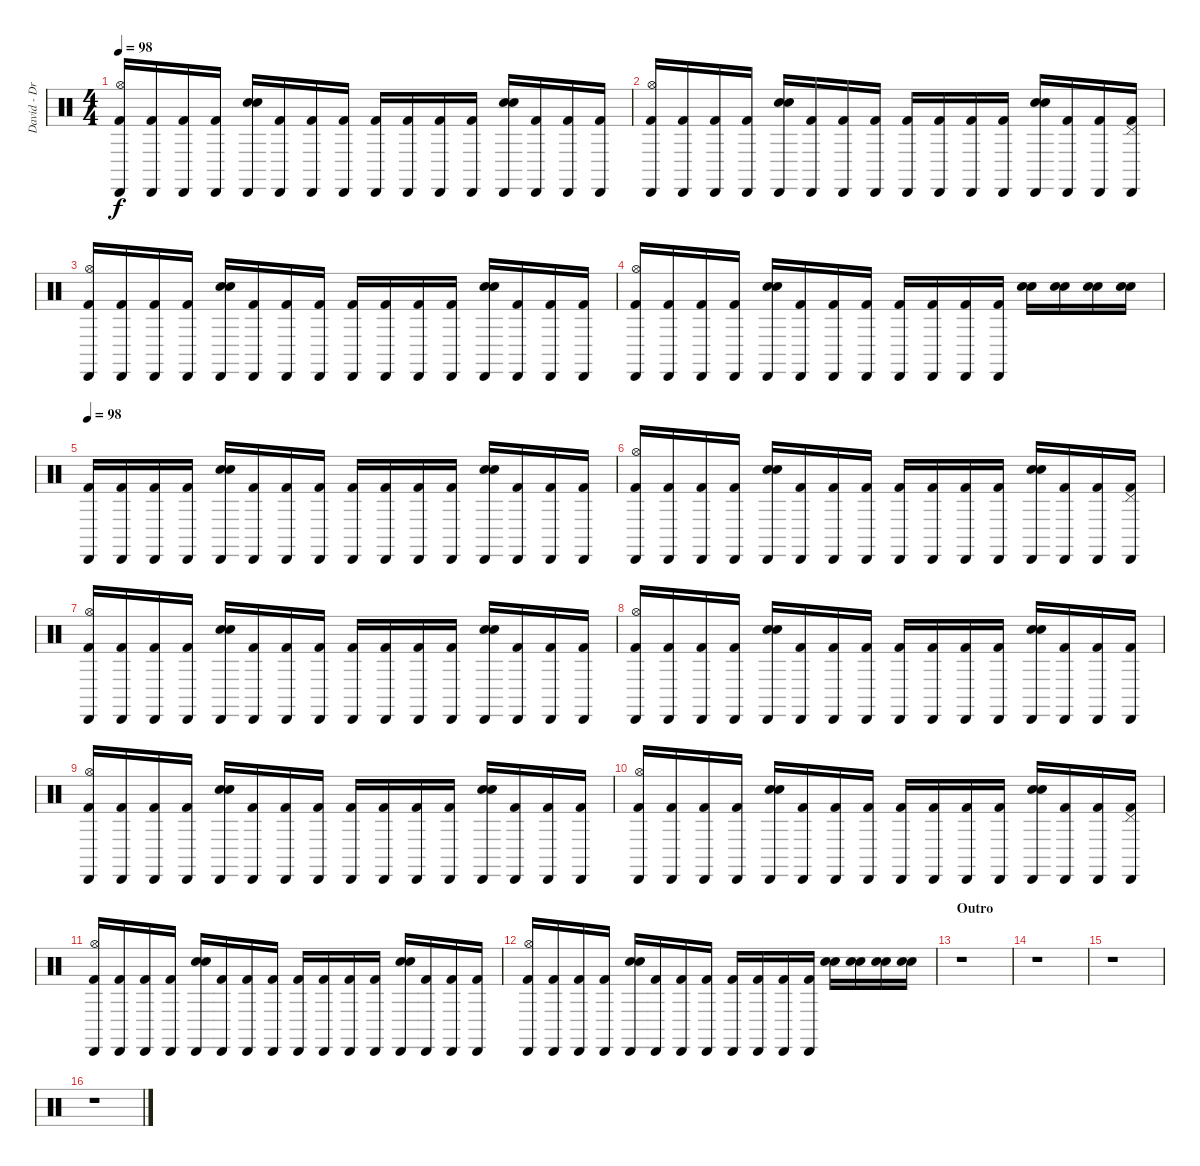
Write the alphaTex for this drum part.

\track ("David - Drums" "David - Dr") {instrument percussion}
\staff {score}
\articulation defaults
\ts (4 4)
\tempo 98
\clef neutral
\ks c
("Cabasa (hit)" "Hi-Hat (open)" "Kick (hit) 2").16{dy f} ("Cabasa (hit)" "Kick (hit) 2").16 ("Cabasa (hit)" "Kick (hit) 2").16 ("Cabasa (hit)" "Kick (hit) 2").16 ("Cabasa (hit)" "Electric Snare (hit)" "Snare (hit) 2").16 ("Cabasa (hit)" "Kick (hit) 2").16 ("Cabasa (hit)" "Kick (hit) 2").16 ("Cabasa (hit)" "Kick (hit) 2").16 ("Cabasa (hit)" "Kick (hit) 2").16 ("Cabasa (hit)" "Kick (hit) 2").16 ("Cabasa (hit)" "Kick (hit) 2").16 ("Cabasa (hit)" "Kick (hit) 2").16 ("Cabasa (hit)" "Electric Snare (hit)" "Snare (hit) 2").16 ("Cabasa (hit)" "Kick (hit) 2").16 ("Cabasa (hit)" "Kick (hit) 2").16 ("Cabasa (hit)" "Kick (hit) 2").16 |
("Cabasa (hit)" "Hi-Hat (open)" "Kick (hit) 2").16 ("Cabasa (hit)" "Kick (hit) 2").16 ("Cabasa (hit)" "Kick (hit) 2").16 ("Cabasa (hit)" "Kick (hit) 2").16 ("Cabasa (hit)" "Electric Snare (hit)" "Snare (hit) 2").16 ("Cabasa (hit)" "Kick (hit) 2").16 ("Cabasa (hit)" "Kick (hit) 2").16 ("Cabasa (hit)" "Kick (hit) 2").16 ("Cabasa (hit)" "Kick (hit) 2").16 ("Cabasa (hit)" "Kick (hit) 2").16 ("Cabasa (hit)" "Kick (hit) 2").16 ("Cabasa (hit)" "Kick (hit) 2").16 ("Cabasa (hit)" "Electric Snare (hit)" "Snare (hit) 2").16 ("Cabasa (hit)" "Kick (hit) 2").16 ("Cabasa (hit)" "Kick (hit) 2").16 ("Cabasa (hit)" "Pedal Hi-Hat (hit)" "Kick (hit) 2").16 |
("Cabasa (hit)" "Hi-Hat (open)" "Kick (hit) 2").16 ("Cabasa (hit)" "Kick (hit) 2").16 ("Cabasa (hit)" "Kick (hit) 2").16 ("Cabasa (hit)" "Kick (hit) 2").16 ("Cabasa (hit)" "Electric Snare (hit)" "Snare (hit) 2").16 ("Cabasa (hit)" "Kick (hit) 2").16 ("Cabasa (hit)" "Kick (hit) 2").16 ("Cabasa (hit)" "Kick (hit) 2").16 ("Cabasa (hit)" "Kick (hit) 2").16 ("Cabasa (hit)" "Kick (hit) 2").16 ("Cabasa (hit)" "Kick (hit) 2").16 ("Cabasa (hit)" "Kick (hit) 2").16 ("Cabasa (hit)" "Electric Snare (hit)" "Snare (hit) 2").16 ("Cabasa (hit)" "Kick (hit) 2").16 ("Cabasa (hit)" "Kick (hit) 2").16 ("Cabasa (hit)" "Kick (hit) 2").16 |
("Cabasa (hit)" "Hi-Hat (open)" "Kick (hit) 2").16 ("Cabasa (hit)" "Kick (hit) 2").16 ("Cabasa (hit)" "Kick (hit) 2").16 ("Cabasa (hit)" "Kick (hit) 2").16 ("Cabasa (hit)" "Electric Snare (hit)" "Snare (hit) 2").16 ("Cabasa (hit)" "Kick (hit) 2").16 ("Cabasa (hit)" "Kick (hit) 2").16 ("Cabasa (hit)" "Kick (hit) 2").16 ("Cabasa (hit)" "Kick (hit) 2").16 ("Cabasa (hit)" "Kick (hit) 2").16 ("Cabasa (hit)" "Kick (hit) 2").16 ("Cabasa (hit)" "Kick (hit) 2").16 ("Electric Snare (hit)" "Snare (hit) 2").16 ("Electric Snare (hit)" "Snare (hit) 2").16 ("Electric Snare (hit)" "Snare (hit) 2").16 ("Electric Snare (hit)" "Snare (hit) 2").16 |
\tempo 98
("Cabasa (hit)" "Kick (hit) 2").16 ("Cabasa (hit)" "Kick (hit) 2").16 ("Cabasa (hit)" "Kick (hit) 2").16 ("Cabasa (hit)" "Kick (hit) 2").16 ("Cabasa (hit)" "Electric Snare (hit)" "Snare (hit) 2").16 ("Cabasa (hit)" "Kick (hit) 2").16 ("Cabasa (hit)" "Kick (hit) 2").16 ("Cabasa (hit)" "Kick (hit) 2").16 ("Cabasa (hit)" "Kick (hit) 2").16 ("Cabasa (hit)" "Kick (hit) 2").16 ("Cabasa (hit)" "Kick (hit) 2").16 ("Cabasa (hit)" "Kick (hit) 2").16 ("Cabasa (hit)" "Electric Snare (hit)" "Snare (hit) 2").16 ("Cabasa (hit)" "Kick (hit) 2").16 ("Cabasa (hit)" "Kick (hit) 2").16 ("Cabasa (hit)" "Kick (hit) 2").16 |
("Cabasa (hit)" "Hi-Hat (open)" "Kick (hit) 2").16 ("Cabasa (hit)" "Kick (hit) 2").16 ("Cabasa (hit)" "Kick (hit) 2").16 ("Cabasa (hit)" "Kick (hit) 2").16 ("Cabasa (hit)" "Electric Snare (hit)" "Snare (hit) 2").16 ("Cabasa (hit)" "Kick (hit) 2").16 ("Cabasa (hit)" "Kick (hit) 2").16 ("Cabasa (hit)" "Kick (hit) 2").16 ("Cabasa (hit)" "Kick (hit) 2").16 ("Cabasa (hit)" "Kick (hit) 2").16 ("Cabasa (hit)" "Kick (hit) 2").16 ("Cabasa (hit)" "Kick (hit) 2").16 ("Cabasa (hit)" "Electric Snare (hit)" "Snare (hit) 2").16 ("Cabasa (hit)" "Kick (hit) 2").16 ("Cabasa (hit)" "Kick (hit) 2").16 ("Cabasa (hit)" "Pedal Hi-Hat (hit)" "Kick (hit) 2").16 |
("Cabasa (hit)" "Hi-Hat (open)" "Kick (hit) 2").16 ("Cabasa (hit)" "Kick (hit) 2").16 ("Cabasa (hit)" "Kick (hit) 2").16 ("Cabasa (hit)" "Kick (hit) 2").16 ("Cabasa (hit)" "Electric Snare (hit)" "Snare (hit) 2").16 ("Cabasa (hit)" "Kick (hit) 2").16 ("Cabasa (hit)" "Kick (hit) 2").16 ("Cabasa (hit)" "Kick (hit) 2").16 ("Cabasa (hit)" "Kick (hit) 2").16 ("Cabasa (hit)" "Kick (hit) 2").16 ("Cabasa (hit)" "Kick (hit) 2").16 ("Cabasa (hit)" "Kick (hit) 2").16 ("Cabasa (hit)" "Electric Snare (hit)" "Snare (hit) 2").16 ("Cabasa (hit)" "Kick (hit) 2").16 ("Cabasa (hit)" "Kick (hit) 2").16 ("Cabasa (hit)" "Kick (hit) 2").16 |
("Cabasa (hit)" "Hi-Hat (open)" "Kick (hit) 2").16 ("Cabasa (hit)" "Kick (hit) 2").16 ("Cabasa (hit)" "Kick (hit) 2").16 ("Cabasa (hit)" "Kick (hit) 2").16 ("Cabasa (hit)" "Electric Snare (hit)" "Snare (hit) 2").16 ("Cabasa (hit)" "Kick (hit) 2").16 ("Cabasa (hit)" "Kick (hit) 2").16 ("Cabasa (hit)" "Kick (hit) 2").16 ("Cabasa (hit)" "Kick (hit) 2").16 ("Cabasa (hit)" "Kick (hit) 2").16 ("Cabasa (hit)" "Kick (hit) 2").16 ("Cabasa (hit)" "Kick (hit) 2").16 ("Cabasa (hit)" "Electric Snare (hit)" "Snare (hit) 2").16 ("Cabasa (hit)" "Kick (hit) 2").16 ("Cabasa (hit)" "Kick (hit) 2").16 ("Cabasa (hit)" "Kick (hit) 2").16 |
("Cabasa (hit)" "Hi-Hat (open)" "Kick (hit) 2").16 ("Cabasa (hit)" "Kick (hit) 2").16 ("Cabasa (hit)" "Kick (hit) 2").16 ("Cabasa (hit)" "Kick (hit) 2").16 ("Cabasa (hit)" "Electric Snare (hit)" "Snare (hit) 2").16 ("Cabasa (hit)" "Kick (hit) 2").16 ("Cabasa (hit)" "Kick (hit) 2").16 ("Cabasa (hit)" "Kick (hit) 2").16 ("Cabasa (hit)" "Kick (hit) 2").16 ("Cabasa (hit)" "Kick (hit) 2").16 ("Cabasa (hit)" "Kick (hit) 2").16 ("Cabasa (hit)" "Kick (hit) 2").16 ("Cabasa (hit)" "Electric Snare (hit)" "Snare (hit) 2").16 ("Cabasa (hit)" "Kick (hit) 2").16 ("Cabasa (hit)" "Kick (hit) 2").16 ("Cabasa (hit)" "Kick (hit) 2").16 |
("Cabasa (hit)" "Hi-Hat (open)" "Kick (hit) 2").16 ("Cabasa (hit)" "Kick (hit) 2").16 ("Cabasa (hit)" "Kick (hit) 2").16 ("Cabasa (hit)" "Kick (hit) 2").16 ("Cabasa (hit)" "Electric Snare (hit)" "Snare (hit) 2").16 ("Cabasa (hit)" "Kick (hit) 2").16 ("Cabasa (hit)" "Kick (hit) 2").16 ("Cabasa (hit)" "Kick (hit) 2").16 ("Cabasa (hit)" "Kick (hit) 2").16 ("Cabasa (hit)" "Kick (hit) 2").16 ("Cabasa (hit)" "Kick (hit) 2").16 ("Cabasa (hit)" "Kick (hit) 2").16 ("Cabasa (hit)" "Electric Snare (hit)" "Snare (hit) 2").16 ("Cabasa (hit)" "Kick (hit) 2").16 ("Cabasa (hit)" "Kick (hit) 2").16 ("Cabasa (hit)" "Pedal Hi-Hat (hit)" "Kick (hit) 2").16 |
("Cabasa (hit)" "Hi-Hat (open)" "Kick (hit) 2").16 ("Cabasa (hit)" "Kick (hit) 2").16 ("Cabasa (hit)" "Kick (hit) 2").16 ("Cabasa (hit)" "Kick (hit) 2").16 ("Cabasa (hit)" "Electric Snare (hit)" "Snare (hit) 2").16 ("Cabasa (hit)" "Kick (hit) 2").16 ("Cabasa (hit)" "Kick (hit) 2").16 ("Cabasa (hit)" "Kick (hit) 2").16 ("Cabasa (hit)" "Kick (hit) 2").16 ("Cabasa (hit)" "Kick (hit) 2").16 ("Cabasa (hit)" "Kick (hit) 2").16 ("Cabasa (hit)" "Kick (hit) 2").16 ("Cabasa (hit)" "Electric Snare (hit)" "Snare (hit) 2").16 ("Cabasa (hit)" "Kick (hit) 2").16 ("Cabasa (hit)" "Kick (hit) 2").16 ("Cabasa (hit)" "Kick (hit) 2").16 |
("Cabasa (hit)" "Hi-Hat (open)" "Kick (hit) 2").16 ("Cabasa (hit)" "Kick (hit) 2").16 ("Cabasa (hit)" "Kick (hit) 2").16 ("Cabasa (hit)" "Kick (hit) 2").16 ("Cabasa (hit)" "Electric Snare (hit)" "Snare (hit) 2").16 ("Cabasa (hit)" "Kick (hit) 2").16 ("Cabasa (hit)" "Kick (hit) 2").16 ("Cabasa (hit)" "Kick (hit) 2").16 ("Cabasa (hit)" "Kick (hit) 2").16 ("Cabasa (hit)" "Kick (hit) 2").16 ("Cabasa (hit)" "Kick (hit) 2").16 ("Cabasa (hit)" "Kick (hit) 2").16 ("Electric Snare (hit)" "Snare (hit) 2").16 ("Electric Snare (hit)" "Snare (hit) 2").16 ("Electric Snare (hit)" "Snare (hit) 2").16 ("Electric Snare (hit)" "Snare (hit) 2").16 |
\section ("" "Outro")
r.1 |
r.1 |
r.1 |
r.1
